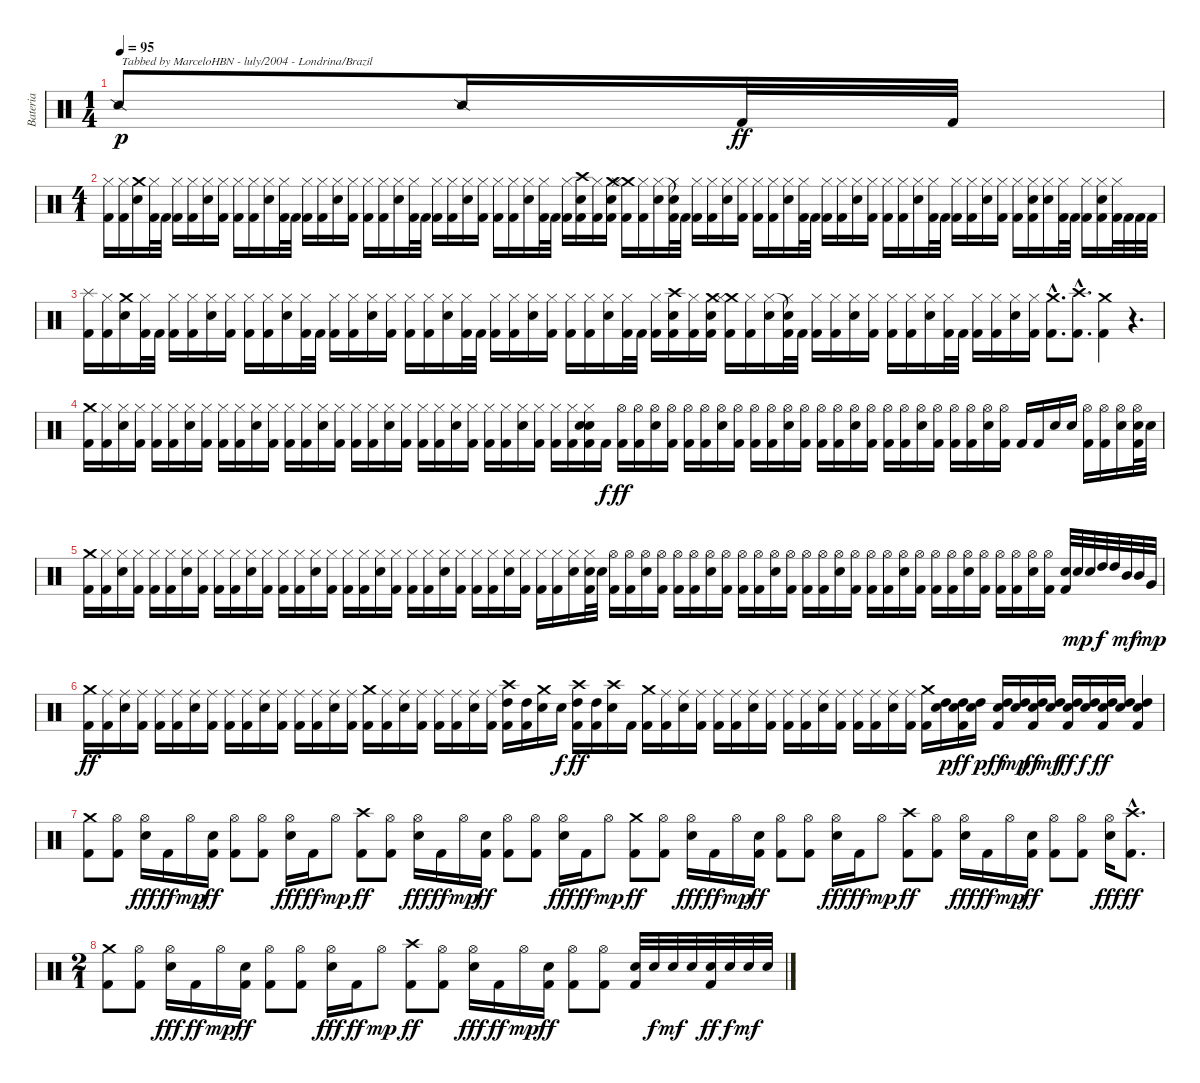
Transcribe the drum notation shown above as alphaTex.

\track ("Bateria" "Bateria") {instrument percussion}
\staff {score}
\articulation defaults
\ts (1 4)
\tempo 95
\clef neutral
\ks c "Snare (side stick) 2".8{txt "Tabbed by MarceloHBN - luly/2004 - Londrina/Brazil" dy p} "Snare (side stick) 2".16 "Kick (hit) 2".32{dy ff} "Kick (hit) 2".32
|
\ts (4 1)
("Hi-Hat (closed)" "Kick (hit) 2").16 ("Hi-Hat (closed)" "Kick (hit) 2").16 ("Crash medium (hit)" "Electric Snare (hit)").16 ("Hi-Hat (closed)" "Kick (hit) 2").32 "Kick (hit) 2".32 ("Hi-Hat (closed)" "Kick (hit) 2").16 ("Hi-Hat (closed)" "Kick (hit) 2").16 ("Hi-Hat (closed)" "Electric Snare (hit)").16 ("Hi-Hat (closed)" "Kick (hit) 2").16 ("Hi-Hat (closed)" "Kick (hit) 2").16 ("Hi-Hat (closed)" "Kick (hit) 2").16 ("Hi-Hat (closed)" "Electric Snare (hit)").16 ("Hi-Hat (closed)" "Kick (hit) 2").32 "Kick (hit) 2".32 ("Hi-Hat (closed)" "Kick (hit) 2").16 ("Hi-Hat (closed)" "Kick (hit) 2").16 ("Hi-Hat (closed)" "Electric Snare (hit)").16 ("Hi-Hat (closed)" "Kick (hit) 2").16 ("Hi-Hat (closed)" "Kick (hit) 2").16 ("Hi-Hat (closed)" "Kick (hit) 2").16 ("Hi-Hat (closed)" "Electric Snare (hit)").16 ("Hi-Hat (closed)" "Kick (hit) 2").32 "Kick (hit) 2".32 ("Hi-Hat (closed)" "Kick (hit) 2").16 ("Hi-Hat (closed)" "Kick (hit) 2").16 ("Hi-Hat (closed)" "Electric Snare (hit)").16 ("Hi-Hat (closed)" "Kick (hit) 2").16 ("Hi-Hat (closed)" "Kick (hit) 2").16 ("Hi-Hat (closed)" "Kick (hit) 2").16 ("Hi-Hat (closed)" "Electric Snare (hit)").16 ("Hi-Hat (closed)" "Kick (hit) 2").32 "Kick (hit) 2".32 ("Hi-Hat (closed)" "Kick (hit) 2").16 ("Crash high (hit)" "Electric Snare (hit)" "Kick (hit) 2").16 ("Hi-Hat (closed)" "Kick (hit) 2").16 ("Crash medium (hit)" "Electric Snare (hit)" "Kick (hit) 2").16 ("Crash medium (hit)" "Hi-Hat (closed)" "Kick (hit) 2").16 ("Hi-Hat (closed)" "Kick (hit) 2").16 ("Hi-Hat (closed)" "Electric Snare (hit)").16 ("Snare (hit)"{t} "Hi-Hat (closed)" "Kick (hit) 2").32 "Kick (hit) 2".32 ("Hi-Hat (closed)" "Kick (hit) 2").16 ("Hi-Hat (closed)" "Kick (hit) 2").16 ("Hi-Hat (closed)" "Electric Snare (hit)").16 ("Hi-Hat (closed)" "Kick (hit) 2").16 ("Hi-Hat (closed)" "Kick (hit) 2").16 ("Hi-Hat (closed)" "Kick (hit) 2").16 ("Hi-Hat (closed)" "Electric Snare (hit)").16 ("Hi-Hat (closed)" "Kick (hit) 2").32 "Kick (hit) 2".32 ("Hi-Hat (closed)" "Kick (hit) 2").16 ("Hi-Hat (closed)" "Kick (hit) 2").16 ("Hi-Hat (closed)" "Electric Snare (hit)").16 ("Hi-Hat (closed)" "Kick (hit) 2").16 ("Hi-Hat (closed)" "Kick (hit) 2").16 ("Hi-Hat (closed)" "Kick (hit) 2").16 ("Hi-Hat (closed)" "Electric Snare (hit)").16 ("Hi-Hat (closed)" "Kick (hit) 2").32 "Kick (hit) 2".32 ("Hi-Hat (closed)" "Kick (hit) 2").16 ("Hi-Hat (closed)" "Kick (hit) 2").16 ("Hi-Hat (closed)" "Electric Snare (hit)").16 ("Hi-Hat (closed)" "Kick (hit) 2").16 ("Hi-Hat (closed)" "Kick (hit) 2").16 ("Hi-Hat (closed)" "Electric Snare (hit)" "Kick (hit) 2").16 ("Hi-Hat (closed)" "Electric Snare (hit)").16 ("Hi-Hat (closed)" "Kick (hit) 2").32 "Kick (hit) 2".32 ("Hi-Hat (closed)" "Kick (hit) 2").16 ("Hi-Hat (closed)" "Electric Snare (hit)" "Kick (hit) 2").16 ("Hi-Hat (closed)" "Kick (hit) 2").32 "Kick (hit) 2".32 "Kick (hit) 2".32 "Kick (hit) 2".32 |
("Splash (hit)" "Kick (hit) 2").16 ("Hi-Hat (closed)" "Kick (hit) 2").16 ("Crash medium (hit)" "Electric Snare (hit)").16 ("Hi-Hat (closed)" "Kick (hit) 2").32 "Kick (hit) 2".32 ("Hi-Hat (closed)" "Kick (hit) 2").16 ("Hi-Hat (closed)" "Kick (hit) 2").16 ("Hi-Hat (closed)" "Electric Snare (hit)").16 ("Hi-Hat (closed)" "Kick (hit) 2").16 ("Hi-Hat (closed)" "Kick (hit) 2").16 ("Hi-Hat (closed)" "Kick (hit) 2").16 ("Hi-Hat (closed)" "Electric Snare (hit)").16 ("Hi-Hat (closed)" "Kick (hit) 2").32 "Kick (hit) 2".32 ("Hi-Hat (closed)" "Kick (hit) 2").16 ("Hi-Hat (closed)" "Kick (hit) 2").16 ("Hi-Hat (closed)" "Electric Snare (hit)").16 ("Hi-Hat (closed)" "Kick (hit) 2").16 ("Hi-Hat (closed)" "Kick (hit) 2").16 ("Hi-Hat (closed)" "Kick (hit) 2").16 ("Hi-Hat (closed)" "Electric Snare (hit)").16 ("Hi-Hat (closed)" "Kick (hit) 2").32 "Kick (hit) 2".32 ("Hi-Hat (closed)" "Kick (hit) 2").16 ("Hi-Hat (closed)" "Kick (hit) 2").16 ("Hi-Hat (closed)" "Electric Snare (hit)").16 ("Hi-Hat (closed)" "Kick (hit) 2").16 ("Hi-Hat (closed)" "Kick (hit) 2").16 ("Hi-Hat (closed)" "Kick (hit) 2").16 ("Hi-Hat (closed)" "Electric Snare (hit)").16 ("Hi-Hat (closed)" "Kick (hit) 2").32 "Kick (hit) 2".32 ("Hi-Hat (closed)" "Kick (hit) 2").16 ("Crash high (hit)" "Electric Snare (hit)" "Kick (hit) 2").16 ("Hi-Hat (closed)" "Kick (hit) 2").16 ("Crash medium (hit)" "Electric Snare (hit)" "Kick (hit) 2").16 ("Crash medium (hit)" "Hi-Hat (closed)" "Kick (hit) 2").16 ("Hi-Hat (closed)" "Kick (hit) 2").16 ("Hi-Hat (closed)" "Electric Snare (hit)").16 ("Snare (hit)"{t} "Hi-Hat (closed)" "Kick (hit) 2").32 "Kick (hit) 2".32 ("Hi-Hat (closed)" "Kick (hit) 2").16 ("Hi-Hat (closed)" "Kick (hit) 2").16 ("Hi-Hat (closed)" "Electric Snare (hit)").16 ("Hi-Hat (closed)" "Kick (hit) 2").16 ("Hi-Hat (closed)" "Kick (hit) 2").16 ("Hi-Hat (closed)" "Kick (hit) 2").16 ("Hi-Hat (closed)" "Electric Snare (hit)").16 ("Hi-Hat (closed)" "Kick (hit) 2").32 "Kick (hit) 2".32 ("Hi-Hat (closed)" "Kick (hit) 2").16 ("Hi-Hat (closed)" "Kick (hit) 2").16 ("Hi-Hat (closed)" "Electric Snare (hit)").16 ("Hi-Hat (closed)" "Kick (hit) 2").16 ("Crash medium (hit)"{hac} "Kick (hit) 2"{hac}).8{d} ("Crash high (hit)"{hac} "Kick (hit) 2"{hac}).8{d} ("Crash medium (hit)" "Kick (hit) 2").4 r.4{d} |
("Crash medium (hit)" "Kick (hit) 2").16 ("Hi-Hat (closed)" "Kick (hit) 2").16 ("Hi-Hat (closed)" "Electric Snare (hit)").16 ("Hi-Hat (closed)" "Kick (hit) 2").16 ("Hi-Hat (closed)" "Kick (hit) 2").16 ("Hi-Hat (closed)" "Kick (hit) 2").16 ("Hi-Hat (closed)" "Electric Snare (hit)").16 ("Hi-Hat (closed)" "Kick (hit) 2").16 ("Hi-Hat (closed)" "Kick (hit) 2").16 ("Hi-Hat (closed)" "Kick (hit) 2").16 ("Hi-Hat (closed)" "Electric Snare (hit)").16 ("Hi-Hat (closed)" "Kick (hit) 2").16 ("Hi-Hat (closed)" "Kick (hit) 2").16 ("Hi-Hat (closed)" "Kick (hit) 2").16 ("Hi-Hat (closed)" "Electric Snare (hit)").16 ("Hi-Hat (closed)" "Kick (hit) 2").16 ("Hi-Hat (closed)" "Kick (hit) 2").16 ("Hi-Hat (closed)" "Kick (hit) 2").16 ("Hi-Hat (closed)" "Electric Snare (hit)").16 ("Hi-Hat (closed)" "Kick (hit) 2").16 ("Hi-Hat (closed)" "Kick (hit) 2").16 ("Hi-Hat (closed)" "Kick (hit) 2").16 ("Hi-Hat (closed)" "Electric Snare (hit)").16 ("Hi-Hat (closed)" "Kick (hit) 2").16 ("Hi-Hat (closed)" "Kick (hit) 2").16 ("Hi-Hat (closed)" "Kick (hit) 2").16 ("Hi-Hat (closed)" "Electric Snare (hit)").16 ("Hi-Hat (closed)" "Kick (hit) 2").16 ("Hi-Hat (closed)" "Kick (hit) 2").16 ("Hi-Hat (closed)" "Kick (hit) 2").16 ("Hi-Hat (closed)" "Electric Snare (hit)" "Electric Snare (hit)" "Kick (hit) 2").16 "Kick (hit) 2".16{dy f} ("Hi-Hat (open)" "Kick (hit) 2").16{dy ff} ("Hi-Hat (open)" "Kick (hit) 2").16 ("Hi-Hat (open)" "Electric Snare (hit)").16 ("Hi-Hat (open)" "Kick (hit) 2").16 ("Hi-Hat (open)" "Kick (hit) 2").16 ("Hi-Hat (open)" "Kick (hit) 2").16 ("Hi-Hat (open)" "Electric Snare (hit)").16 ("Hi-Hat (open)" "Kick (hit) 2").16 ("Hi-Hat (open)" "Kick (hit) 2").16 ("Hi-Hat (open)" "Kick (hit) 2").16 ("Hi-Hat (open)" "Electric Snare (hit)").16 ("Hi-Hat (open)" "Kick (hit) 2").16 ("Hi-Hat (open)" "Kick (hit) 2").16 ("Hi-Hat (open)" "Kick (hit) 2").16 ("Hi-Hat (open)" "Electric Snare (hit)").16 ("Hi-Hat (open)" "Kick (hit) 2").16 ("Hi-Hat (open)" "Kick (hit) 2").16 ("Hi-Hat (open)" "Kick (hit) 2").16 ("Hi-Hat (open)" "Electric Snare (hit)").16 ("Hi-Hat (open)" "Kick (hit) 2").16 ("Hi-Hat (open)" "Kick (hit) 2").16 ("Hi-Hat (open)" "Kick (hit) 2").16 ("Hi-Hat (open)" "Electric Snare (hit)").16 ("Hi-Hat (open)" "Kick (hit) 2").16 "Kick (hit) 2".16 "Kick (hit) 2".16 "Electric Snare (hit)".16 "Electric Snare (hit)".16 ("Hi-Hat (open)" "Kick (hit) 2").16 ("Hi-Hat (open)" "Kick (hit) 2").16 ("Hi-Hat (open)" "Electric Snare (hit)").16 ("Hi-Hat (open)" "Electric Snare (hit)" "Kick (hit) 2").32 "Electric Snare (hit)".32 |
("Crash medium (hit)" "Kick (hit) 2").16 ("Hi-Hat (closed)" "Kick (hit) 2").16 ("Hi-Hat (closed)" "Electric Snare (hit)").16 ("Hi-Hat (closed)" "Kick (hit) 2").16 ("Hi-Hat (closed)" "Kick (hit) 2").16 ("Hi-Hat (closed)" "Kick (hit) 2").16 ("Hi-Hat (closed)" "Electric Snare (hit)").16 ("Hi-Hat (closed)" "Kick (hit) 2").16 ("Hi-Hat (closed)" "Kick (hit) 2").16 ("Hi-Hat (closed)" "Kick (hit) 2").16 ("Hi-Hat (closed)" "Electric Snare (hit)").16 ("Hi-Hat (closed)" "Kick (hit) 2").16 ("Hi-Hat (closed)" "Kick (hit) 2").16 ("Hi-Hat (closed)" "Kick (hit) 2").16 ("Hi-Hat (closed)" "Electric Snare (hit)").16 ("Hi-Hat (closed)" "Kick (hit) 2").16 ("Hi-Hat (closed)" "Kick (hit) 2").16 ("Hi-Hat (closed)" "Kick (hit) 2").16 ("Hi-Hat (closed)" "Electric Snare (hit)").16 ("Hi-Hat (closed)" "Kick (hit) 2").16 ("Hi-Hat (closed)" "Kick (hit) 2").16 ("Hi-Hat (closed)" "Kick (hit) 2").16 ("Hi-Hat (closed)" "Electric Snare (hit)").16 ("Hi-Hat (closed)" "Kick (hit) 2").16 ("Hi-Hat (closed)" "Kick (hit) 2").16 ("Hi-Hat (closed)" "Kick (hit) 2").16 ("Hi-Hat (closed)" "Electric Snare (hit)").16 ("Hi-Hat (closed)" "Kick (hit) 2").16 ("Hi-Hat (closed)" "Kick (hit) 2").16 ("Hi-Hat (closed)" "Kick (hit) 2").16 ("Hi-Hat (closed)" "Electric Snare (hit)").16 ("Hi-Hat (closed)" "Electric Snare (hit)" "Kick (hit) 2").32 "Electric Snare (hit)".32 ("Hi-Hat (open)" "Kick (hit) 2").16 ("Hi-Hat (open)" "Kick (hit) 2").16 ("Hi-Hat (open)" "Electric Snare (hit)").16 ("Hi-Hat (open)" "Kick (hit) 2").16 ("Hi-Hat (open)" "Kick (hit) 2").16 ("Hi-Hat (open)" "Kick (hit) 2").16 ("Hi-Hat (open)" "Electric Snare (hit)").16 ("Hi-Hat (open)" "Kick (hit) 2").16 ("Hi-Hat (open)" "Kick (hit) 2").16 ("Hi-Hat (open)" "Kick (hit) 2").16 ("Hi-Hat (open)" "Electric Snare (hit)").16 ("Hi-Hat (open)" "Kick (hit) 2").16 ("Hi-Hat (open)" "Kick (hit) 2").16 ("Hi-Hat (open)" "Kick (hit) 2").16 ("Hi-Hat (open)" "Electric Snare (hit)").16 ("Hi-Hat (open)" "Kick (hit) 2").16 ("Hi-Hat (open)" "Kick (hit) 2").16 ("Hi-Hat (open)" "Kick (hit) 2").16 ("Hi-Hat (open)" "Electric Snare (hit)").16 ("Hi-Hat (open)" "Kick (hit) 2").16 ("Hi-Hat (open)" "Kick (hit) 2").16 ("Hi-Hat (open)" "Kick (hit) 2").16 ("Hi-Hat (open)" "Electric Snare (hit)").16 ("Hi-Hat (open)" "Kick (hit) 2").16 ("Hi-Hat (open)" "Kick (hit) 2").16 ("Hi-Hat (open)" "Kick (hit) 2").16 ("Hi-Hat (open)" "Electric Snare (hit)").16 ("Hi-Hat (open)" "Kick (hit) 2").16 ("Electric Snare (hit)" "Kick (hit) 2").32 "Electric Snare (hit)".32{dy mp} "Electric Snare (hit)".32 "High Tom (hit)".32{dy f} "High Tom (hit)".32 "Mid Tom (hit)".32{dy mf} "Mid Tom (hit)".32 "Very Low Tom (hit)".32{dy mp} |
("Crash medium (hit)" "Kick (hit) 2").16{dy ff} ("Ride (middle)" "Kick (hit) 2").16 ("Ride (middle)" "Electric Snare (hit)").16 ("Ride (middle)" "Kick (hit) 2").16 ("Ride (middle)" "Kick (hit) 2").16 ("Ride (middle)" "Kick (hit) 2").16 ("Ride (middle)" "Electric Snare (hit)").16 ("Ride (middle)" "Kick (hit) 2").16 ("Ride (middle)" "Kick (hit) 2").16 ("Ride (middle)" "Kick (hit) 2").16 ("Ride (middle)" "Electric Snare (hit)").16 ("Ride (middle)" "Kick (hit) 2").16 ("Ride (middle)" "Kick (hit) 2").16 ("Ride (middle)" "Kick (hit) 2").16 ("Ride (middle)" "Electric Snare (hit)").16 ("Ride (middle)" "Kick (hit) 2").16 ("Crash medium (hit)" "Kick (hit) 2").16 ("Ride (middle)" "Kick (hit) 2").16 ("Ride (middle)" "Electric Snare (hit)").16 ("Ride (middle)" "Kick (hit) 2").16 ("Ride (middle)" "Kick (hit) 2").16 ("Ride (middle)" "Kick (hit) 2").16 ("Ride (middle)" "Electric Snare (hit)").16 ("Ride (middle)" "Kick (hit) 2").16 ("Crash high (hit)" "High Tom (hit)" "Kick (hit) 2").16 ("High Tom (hit)" "Kick (hit) 2").16 ("Crash medium (hit)" "Electric Snare (hit)").16 "Electric Snare (hit)".16{dy f} ("Crash high (hit)" "High Tom (hit)" "Kick (hit) 2").16{dy ff} ("High Tom (hit)" "Kick (hit) 2").16 ("Crash high (hit)" "Electric Snare (hit)").16 "Kick (hit) 2".16 ("Crash medium (hit)" "Kick (hit) 2").16 ("Ride (middle)" "Kick (hit) 2").16 ("Ride (middle)" "Electric Snare (hit)").16 ("Ride (middle)" "Kick (hit) 2").16 ("Ride (middle)" "Kick (hit) 2").16 ("Ride (middle)" "Kick (hit) 2").16 ("Ride (middle)" "Electric Snare (hit)").16 ("Ride (middle)" "Kick (hit) 2").16 ("Ride (middle)" "Kick (hit) 2").16 ("Ride (middle)" "Kick (hit) 2").16 ("Ride (middle)" "Electric Snare (hit)").16 ("Ride (middle)" "Kick (hit) 2").16 ("Ride (middle)" "Kick (hit) 2").16 ("Ride (middle)" "Kick (hit) 2").16 ("Ride (middle)" "Electric Snare (hit)").16 ("Ride (middle)" "Kick (hit) 2").16 ("Crash medium (hit)" "Kick (hit) 2").16 ("High Tom (hit)" "Electric Snare (hit)").16{dy p} ("High Tom (hit)" "Electric Snare (hit)" "Kick (hit) 2").16{dy ff} ("High Tom (hit)" "Electric Snare (hit)").16{dy p} ("High Tom (hit)" "Electric Snare (hit)" "Kick (hit) 2").16{dy ff} ("High Tom (hit)" "Electric Snare (hit)").16{dy mp} ("High Tom (hit)" "Electric Snare (hit)" "Kick (hit) 2").16{dy ff} ("High Tom (hit)" "Electric Snare (hit)").16{dy mf} ("High Tom (hit)" "Electric Snare (hit)" "Kick (hit) 2").16{dy ff} ("High Tom (hit)" "Electric Snare (hit)").16{dy f} ("High Tom (hit)" "Electric Snare (hit)" "Kick (hit) 2").16{dy ff} ("High Tom (hit)" "Electric Snare (hit)").16 ("High Tom (hit)" "Electric Snare (hit)" "Kick (hit) 2").4 |
("Crash medium (hit)" "Kick (hit) 2").8 ("Hi-Hat (open)" "Kick (hit) 2").8 ("Hi-Hat (open)" "Electric Snare (hit)").16{dy fff} "Kick (hit) 2".16{dy ff} "Hi-Hat (open)".16{dy mp} ("Electric Snare (hit)" "Kick (hit) 2").16{dy ff} ("Hi-Hat (open)" "Kick (hit) 2").8 ("Hi-Hat (open)" "Kick (hit) 2").8 ("Hi-Hat (open)" "Electric Snare (hit)").16{dy fff} "Kick (hit) 2".16{dy ff} "Hi-Hat (open)".8{dy mp} ("Crash high (hit)" "Kick (hit) 2").8{dy ff} ("Hi-Hat (open)" "Kick (hit) 2").8 ("Hi-Hat (open)" "Electric Snare (hit)").16{dy fff} "Kick (hit) 2".16{dy ff} "Hi-Hat (open)".16{dy mp} ("Electric Snare (hit)" "Kick (hit) 2").16{dy ff} ("Hi-Hat (open)" "Kick (hit) 2").8 ("Hi-Hat (open)" "Kick (hit) 2").8 ("Hi-Hat (open)" "Electric Snare (hit)").16{dy fff} "Kick (hit) 2".16{dy ff} "Hi-Hat (open)".8{dy mp} ("Crash medium (hit)" "Kick (hit) 2").8{dy ff} ("Hi-Hat (open)" "Kick (hit) 2").8 ("Hi-Hat (open)" "Electric Snare (hit)").16{dy fff} "Kick (hit) 2".16{dy ff} "Hi-Hat (open)".16{dy mp} ("Electric Snare (hit)" "Kick (hit) 2").16{dy ff} ("Hi-Hat (open)" "Kick (hit) 2").8 ("Hi-Hat (open)" "Kick (hit) 2").8 ("Hi-Hat (open)" "Electric Snare (hit)").16{dy fff} "Kick (hit) 2".16{dy ff} "Hi-Hat (open)".8{dy mp} ("Crash high (hit)" "Kick (hit) 2").8{dy ff} ("Hi-Hat (open)" "Kick (hit) 2").8 ("Hi-Hat (open)" "Electric Snare (hit)").16{dy fff} "Kick (hit) 2".16{dy ff} "Hi-Hat (open)".16{dy mp} ("Electric Snare (hit)" "Kick (hit) 2").16{dy ff} ("Hi-Hat (open)" "Kick (hit) 2").8 ("Hi-Hat (open)" "Kick (hit) 2").8 ("Hi-Hat (open)" "Electric Snare (hit)").16{dy fff} ("Crash high (hit)"{hac} "Kick (hit) 2"{hac}).8{d dy ff} |
\ts (2 1)
("Crash medium (hit)" "Kick (hit) 2").8 ("Hi-Hat (open)" "Kick (hit) 2").8 ("Hi-Hat (open)" "Electric Snare (hit)").16{dy fff} "Kick (hit) 2".16{dy ff} "Hi-Hat (open)".16{dy mp} ("Electric Snare (hit)" "Kick (hit) 2").16{dy ff} ("Hi-Hat (open)" "Kick (hit) 2").8 ("Hi-Hat (open)" "Kick (hit) 2").8 ("Hi-Hat (open)" "Electric Snare (hit)").16{dy fff} "Kick (hit) 2".16{dy ff} "Hi-Hat (open)".8{dy mp} ("Crash high (hit)" "Kick (hit) 2").8{dy ff} ("Hi-Hat (open)" "Kick (hit) 2").8 ("Hi-Hat (open)" "Electric Snare (hit)").16{dy fff} "Kick (hit) 2".16{dy ff} "Hi-Hat (open)".16{dy mp} ("Electric Snare (hit)" "Kick (hit) 2").16{dy ff} ("Hi-Hat (open)" "Kick (hit) 2").8 ("Hi-Hat (open)" "Kick (hit) 2").8 ("Electric Snare (hit)" "Kick (hit) 2").32 "Electric Snare (hit)".32{dy f} "Electric Snare (hit)".32{dy mf} "Electric Snare (hit)".32 ("Electric Snare (hit)" "Kick (hit) 2").32{dy ff} "Electric Snare (hit)".32{dy f} "Electric Snare (hit)".32{dy mf} "Electric Snare (hit)".32
